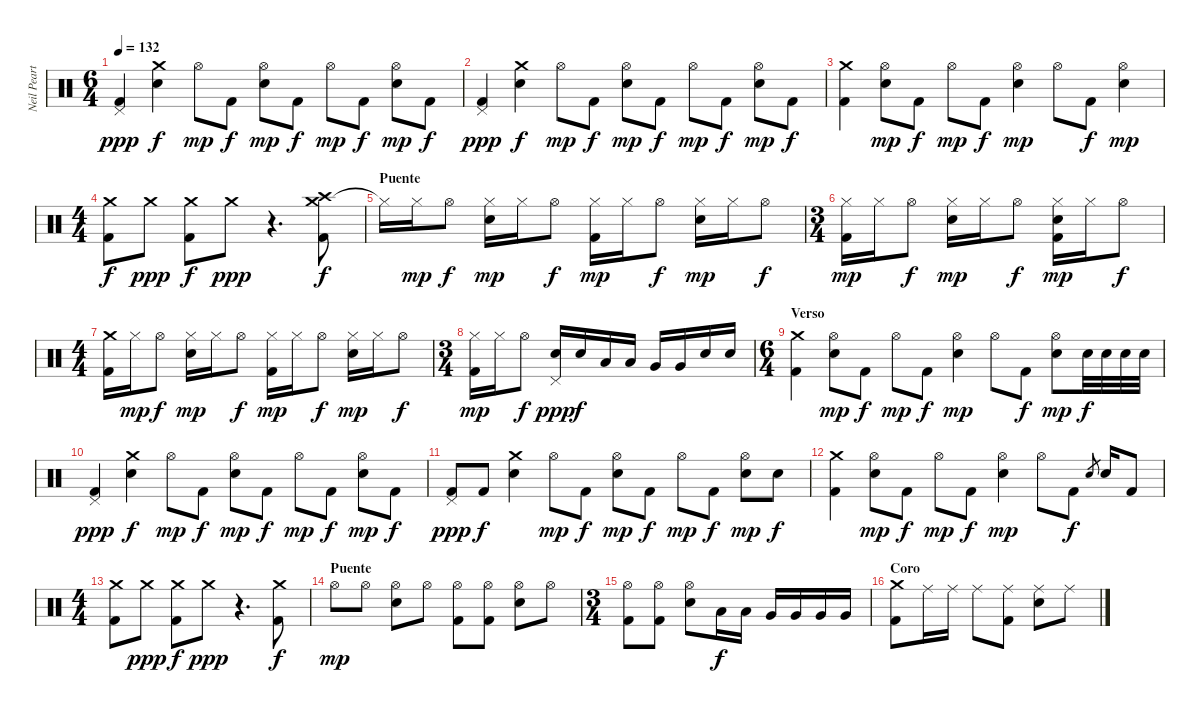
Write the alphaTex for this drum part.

\track ("Neil Peart" "Neil Peart") {instrument percussion}
\staff {score}
\articulation defaults
\ts (6 4)
\tempo 132
\clef neutral
\ks c
("Pedal Hi-Hat (hit)" "Kick (hit) 2").4{dy ppp} ("Crash medium (hit)" "Electric Snare (hit)").4{dy f} "Hi-Hat (open)".8{dy mp} "Kick (hit) 2".8{dy f} ("Hi-Hat (open)" "Electric Snare (hit)").8{dy mp} "Kick (hit) 2".8{dy f} "Hi-Hat (open)".8{dy mp} "Kick (hit) 2".8{dy f} ("Hi-Hat (open)" "Electric Snare (hit)").8{dy mp} "Kick (hit) 2".8{dy f} |
("Pedal Hi-Hat (hit)" "Kick (hit) 2").4{dy ppp} ("Crash medium (hit)" "Electric Snare (hit)").4{dy f} "Hi-Hat (open)".8{dy mp} "Kick (hit) 2".8{dy f} ("Hi-Hat (open)" "Electric Snare (hit)").8{dy mp} "Kick (hit) 2".8{dy f} "Hi-Hat (open)".8{dy mp} "Kick (hit) 2".8{dy f} ("Hi-Hat (open)" "Electric Snare (hit)").8{dy mp} "Kick (hit) 2".8{dy f} |
("Crash medium (hit)" "Kick (hit) 2").4 ("Hi-Hat (open)" "Electric Snare (hit)").8{dy mp} "Kick (hit) 2".8{dy f} "Hi-Hat (open)".8{dy mp} "Kick (hit) 2".8{dy f} ("Hi-Hat (open)" "Electric Snare (hit)").4{dy mp} "Hi-Hat (open)".8 "Kick (hit) 2".8{dy f} ("Hi-Hat (open)" "Electric Snare (hit)").4{dy mp} |
\ts (4 4)
("Crash medium (hit)" "Kick (hit) 2").8{dy f} "Crash medium (hit)".8{dy ppp} ("Crash medium (hit)" "Kick (hit) 2").8{dy f} "Crash medium (hit)".8{dy ppp} r.4{d} ("Crash medium (hit)" "Crash high (hit)" "Kick (hit) 2").8{dy f} |
\section ("" "Puente")
"Hi-Hat (closed)"{t}.16 "Hi-Hat (closed)".16{dy mp} "Hi-Hat (open)".8{dy f} ("Hi-Hat (closed)" "Electric Snare (hit)").16{dy mp} "Hi-Hat (closed)".16 "Hi-Hat (open)".8{dy f} ("Hi-Hat (closed)" "Kick (hit) 2").16{dy mp} "Hi-Hat (closed)".16 "Hi-Hat (open)".8{dy f} ("Hi-Hat (closed)" "Electric Snare (hit)").16{dy mp} "Hi-Hat (closed)".16 "Hi-Hat (open)".8{dy f} |
\ts (3 4)
("Hi-Hat (closed)" "Kick (hit) 2").16{dy mp} "Hi-Hat (closed)".16 "Hi-Hat (open)".8{dy f} ("Hi-Hat (closed)" "Electric Snare (hit)").16{dy mp} "Hi-Hat (closed)".16 "Hi-Hat (open)".8{dy f} ("Hi-Hat (closed)" "Electric Snare (hit)" "Kick (hit) 2").16{dy mp} "Hi-Hat (closed)".16 "Hi-Hat (open)".8{dy f} |
\ts (4 4)
("Crash medium (hit)" "Kick (hit) 2").16 "Hi-Hat (closed)".16{dy mp} "Hi-Hat (open)".8{dy f} ("Hi-Hat (closed)" "Electric Snare (hit)").16{dy mp} "Hi-Hat (closed)".16 "Hi-Hat (open)".8{dy f} ("Hi-Hat (closed)" "Kick (hit) 2").16{dy mp} "Hi-Hat (closed)".16 "Hi-Hat (open)".8{dy f} ("Hi-Hat (closed)" "Electric Snare (hit)").16{dy mp} "Hi-Hat (closed)".16 "Hi-Hat (open)".8{dy f} |
\ts (3 4)
("Hi-Hat (closed)" "Kick (hit) 2").16{dy mp} "Hi-Hat (closed)".16 "Hi-Hat (open)".8{dy f} ("Pedal Hi-Hat (hit)" "Electric Snare (hit)").16{dy ppp} "Electric Snare (hit)".16{dy f} "Low Tom (hit)".16 "Low Tom (hit)".16 "Very Low Tom (hit)".16 "Very Low Tom (hit)".16 "Electric Snare (hit)".16 "Electric Snare (hit)".16 |
\ts (6 4)
\section ("" "Verso")
("Crash medium (hit)" "Kick (hit) 2").4 ("Hi-Hat (open)" "Electric Snare (hit)").8{dy mp} "Kick (hit) 2".8{dy f} "Hi-Hat (open)".8{dy mp} "Kick (hit) 2".8{dy f} ("Hi-Hat (open)" "Electric Snare (hit)").4{dy mp} "Hi-Hat (open)".8 "Kick (hit) 2".8{dy f} ("Hi-Hat (open)" "Electric Snare (hit)").8{dy mp} "Electric Snare (hit)".32{dy f} "Electric Snare (hit)".32 "Electric Snare (hit)".32 "Electric Snare (hit)".32 |
("Pedal Hi-Hat (hit)" "Kick (hit) 2").4{dy ppp} ("Crash medium (hit)" "Electric Snare (hit)").4{dy f} "Hi-Hat (open)".8{dy mp} "Kick (hit) 2".8{dy f} ("Hi-Hat (open)" "Electric Snare (hit)").8{dy mp} "Kick (hit) 2".8{dy f} "Hi-Hat (open)".8{dy mp} "Kick (hit) 2".8{dy f} ("Hi-Hat (open)" "Electric Snare (hit)").8{dy mp} "Kick (hit) 2".8{dy f} |
("Pedal Hi-Hat (hit)" "Kick (hit) 2").8{dy ppp} "Kick (hit) 2".8{dy f} ("Crash medium (hit)" "Electric Snare (hit)").4 "Hi-Hat (open)".8{dy mp} "Kick (hit) 2".8{dy f} ("Hi-Hat (open)" "Electric Snare (hit)").8{dy mp} "Kick (hit) 2".8{dy f} "Hi-Hat (open)".8{dy mp} "Kick (hit) 2".8{dy f} ("Hi-Hat (open)" "Electric Snare (hit)").8{dy mp} "Electric Snare (hit)".8{dy f} |
("Crash medium (hit)" "Kick (hit) 2").4 ("Hi-Hat (open)" "Electric Snare (hit)").8{dy mp} "Kick (hit) 2".8{dy f} "Hi-Hat (open)".8{dy mp} "Kick (hit) 2".8{dy f} ("Hi-Hat (open)" "Electric Snare (hit)").4{dy mp} "Hi-Hat (open)".8 "Kick (hit) 2".8{dy f} "Electric Snare (hit)".8{gr} "Electric Snare (hit)".16 "Kick (hit) 2".8 |
\ts (4 4)
("Crash medium (hit)" "Kick (hit) 2").8 "Crash medium (hit)".8{dy ppp} ("Crash medium (hit)" "Kick (hit) 2").8{dy f} "Crash medium (hit)".8{dy ppp} r.4{d} ("Crash medium (hit)" "Kick (hit) 2").8{dy f} |
\section ("" "Puente")
"Hi-Hat (open)".8{dy mp} "Hi-Hat (open)".8 ("Hi-Hat (open)" "Electric Snare (hit)").8 "Hi-Hat (open)".8 ("Hi-Hat (open)" "Kick (hit) 2").8 ("Hi-Hat (open)" "Kick (hit) 2").8 ("Hi-Hat (open)" "Electric Snare (hit)").8 "Hi-Hat (open)".8 |
\ts (3 4)
("Hi-Hat (open)" "Kick (hit) 2").8 ("Hi-Hat (open)" "Kick (hit) 2").8 ("Hi-Hat (open)" "Electric Snare (hit)").8 "Low Tom (hit)".16{dy f} "Low Tom (hit)".16 "Very Low Tom (hit)".16 "Very Low Tom (hit)".16 "Very Low Tom (hit)".16 "Very Low Tom (hit)".16 |
\section ("" "Coro")
("Crash medium (hit)" "Kick (hit) 2").8 "Ride (middle)".16 "Ride (middle)".16 "Ride (middle)".8 ("Ride (middle)" "Kick (hit) 2").8 ("Ride (middle)" "Electric Snare (hit)").8 "Ride (middle)".8
